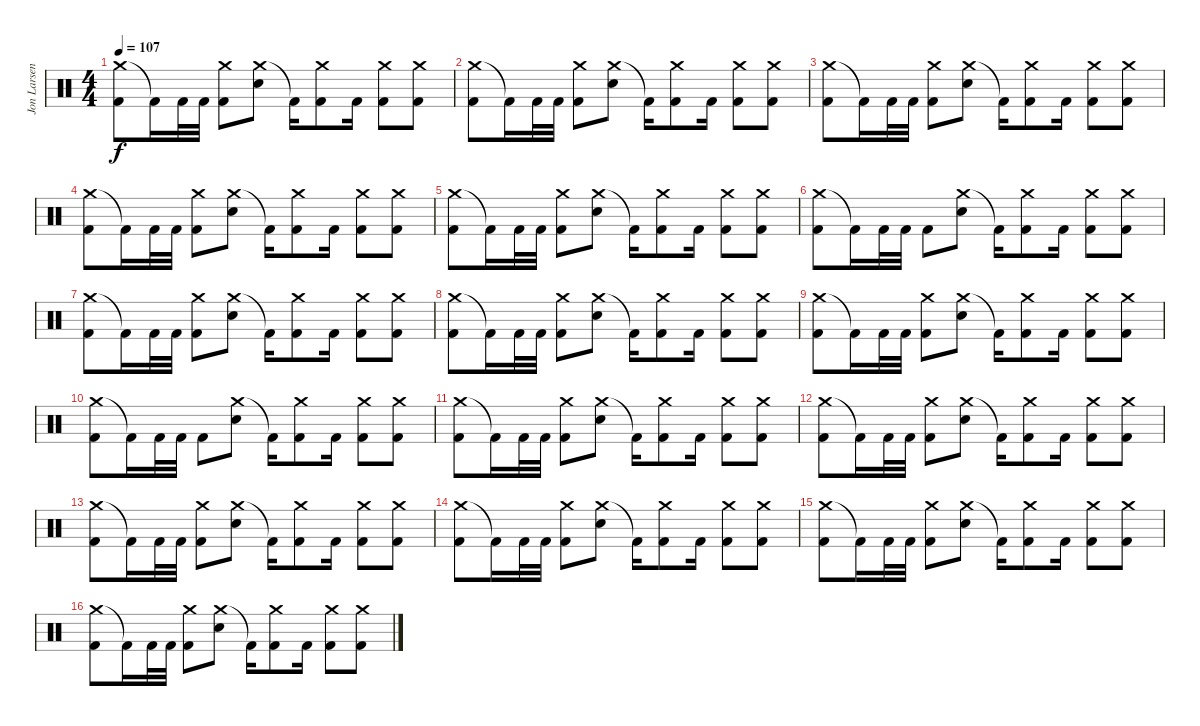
\track ("Jon Larsen (Drums)" "Jon Larsen") {instrument percussion}
\staff {score}
\articulation defaults
\ts (4 4)
\tempo 107
\clef neutral
\ks c
("Crash medium (hit)" "Kick (hit) 2").8{dy f} "Kick (hit) 2"{t}.16 "Kick (hit) 2".32 "Kick (hit) 2".32 ("Crash medium (hit)" "Kick (hit) 2").8 ("Crash medium (hit)" "Electric Snare (hit)").8 "Kick (hit) 2"{t}.16 ("Crash medium (hit)" "Kick (hit) 2").8 "Kick (hit) 2".16 ("Crash medium (hit)" "Kick (hit) 2").8 ("Crash medium (hit)" "Kick (hit) 2").8 |
("Crash medium (hit)" "Kick (hit) 2").8 "Kick (hit) 2"{t}.16 "Kick (hit) 2".32 "Kick (hit) 2".32 ("Crash medium (hit)" "Kick (hit) 2").8 ("Crash medium (hit)" "Electric Snare (hit)").8 "Kick (hit) 2"{t}.16 ("Crash medium (hit)" "Kick (hit) 2").8 "Kick (hit) 2".16 ("Crash medium (hit)" "Kick (hit) 2").8 ("Crash medium (hit)" "Kick (hit) 2").8 |
("Crash medium (hit)" "Kick (hit) 2").8 "Kick (hit) 2"{t}.16 "Kick (hit) 2".32 "Kick (hit) 2".32 ("Crash medium (hit)" "Kick (hit) 2").8 ("Crash medium (hit)" "Electric Snare (hit)").8 "Kick (hit) 2"{t}.16 ("Crash medium (hit)" "Kick (hit) 2").8 "Kick (hit) 2".16 ("Crash medium (hit)" "Kick (hit) 2").8 ("Crash medium (hit)" "Kick (hit) 2").8 |
("Crash medium (hit)" "Kick (hit) 2").8 "Kick (hit) 2"{t}.16 "Kick (hit) 2".32 "Kick (hit) 2".32 ("Crash medium (hit)" "Kick (hit) 2").8 ("Crash medium (hit)" "Electric Snare (hit)").8 "Kick (hit) 2"{t}.16 ("Crash medium (hit)" "Kick (hit) 2").8 "Kick (hit) 2".16 ("Crash medium (hit)" "Kick (hit) 2").8 ("Crash medium (hit)" "Kick (hit) 2").8 |
("Crash medium (hit)" "Kick (hit) 2").8 "Kick (hit) 2"{t}.16 "Kick (hit) 2".32 "Kick (hit) 2".32 ("Crash medium (hit)" "Kick (hit) 2").8 ("Crash medium (hit)" "Electric Snare (hit)").8 "Kick (hit) 2"{t}.16 ("Crash medium (hit)" "Kick (hit) 2").8 "Kick (hit) 2".16 ("Crash medium (hit)" "Kick (hit) 2").8 ("Crash medium (hit)" "Kick (hit) 2").8 |
("Crash medium (hit)" "Kick (hit) 2").8 "Kick (hit) 2"{t}.16 "Kick (hit) 2".32 "Kick (hit) 2".32 "Kick (hit) 2".8 ("Crash medium (hit)" "Electric Snare (hit)").8 "Kick (hit) 2"{t}.16 ("Crash medium (hit)" "Kick (hit) 2").8 "Kick (hit) 2".16 ("Crash medium (hit)" "Kick (hit) 2").8 ("Crash medium (hit)" "Kick (hit) 2").8 |
("Crash medium (hit)" "Kick (hit) 2").8 "Kick (hit) 2"{t}.16 "Kick (hit) 2".32 "Kick (hit) 2".32 ("Crash medium (hit)" "Kick (hit) 2").8 ("Crash medium (hit)" "Electric Snare (hit)").8 "Kick (hit) 2"{t}.16 ("Crash medium (hit)" "Kick (hit) 2").8 "Kick (hit) 2".16 ("Crash medium (hit)" "Kick (hit) 2").8 ("Crash medium (hit)" "Kick (hit) 2").8 |
("Crash medium (hit)" "Kick (hit) 2").8 "Kick (hit) 2"{t}.16 "Kick (hit) 2".32 "Kick (hit) 2".32 ("Crash medium (hit)" "Kick (hit) 2").8 ("Crash medium (hit)" "Electric Snare (hit)").8 "Kick (hit) 2"{t}.16 ("Crash medium (hit)" "Kick (hit) 2").8 "Kick (hit) 2".16 ("Crash medium (hit)" "Kick (hit) 2").8 ("Crash medium (hit)" "Kick (hit) 2").8 |
("Crash medium (hit)" "Kick (hit) 2").8 "Kick (hit) 2"{t}.16 "Kick (hit) 2".32 "Kick (hit) 2".32 ("Crash medium (hit)" "Kick (hit) 2").8 ("Crash medium (hit)" "Electric Snare (hit)").8 "Kick (hit) 2"{t}.16 ("Crash medium (hit)" "Kick (hit) 2").8 "Kick (hit) 2".16 ("Crash medium (hit)" "Kick (hit) 2").8 ("Crash medium (hit)" "Kick (hit) 2").8 |
("Crash medium (hit)" "Kick (hit) 2").8 "Kick (hit) 2"{t}.16 "Kick (hit) 2".32 "Kick (hit) 2".32 "Kick (hit) 2".8 ("Crash medium (hit)" "Electric Snare (hit)").8 "Kick (hit) 2"{t}.16 ("Crash medium (hit)" "Kick (hit) 2").8 "Kick (hit) 2".16 ("Crash medium (hit)" "Kick (hit) 2").8 ("Crash medium (hit)" "Kick (hit) 2").8 |
("Crash medium (hit)" "Kick (hit) 2").8 "Kick (hit) 2"{t}.16 "Kick (hit) 2".32 "Kick (hit) 2".32 ("Crash medium (hit)" "Kick (hit) 2").8 ("Crash medium (hit)" "Electric Snare (hit)").8 "Kick (hit) 2"{t}.16 ("Crash medium (hit)" "Kick (hit) 2").8 "Kick (hit) 2".16 ("Crash medium (hit)" "Kick (hit) 2").8 ("Crash medium (hit)" "Kick (hit) 2").8 |
("Crash medium (hit)" "Kick (hit) 2").8 "Kick (hit) 2"{t}.16 "Kick (hit) 2".32 "Kick (hit) 2".32 ("Crash medium (hit)" "Kick (hit) 2").8 ("Crash medium (hit)" "Electric Snare (hit)").8 "Kick (hit) 2"{t}.16 ("Crash medium (hit)" "Kick (hit) 2").8 "Kick (hit) 2".16 ("Crash medium (hit)" "Kick (hit) 2").8 ("Crash medium (hit)" "Kick (hit) 2").8 |
("Crash medium (hit)" "Kick (hit) 2").8 "Kick (hit) 2"{t}.16 "Kick (hit) 2".32 "Kick (hit) 2".32 ("Crash medium (hit)" "Kick (hit) 2").8 ("Crash medium (hit)" "Electric Snare (hit)").8 "Kick (hit) 2"{t}.16 ("Crash medium (hit)" "Kick (hit) 2").8 "Kick (hit) 2".16 ("Crash medium (hit)" "Kick (hit) 2").8 ("Crash medium (hit)" "Kick (hit) 2").8 |
("Crash medium (hit)" "Kick (hit) 2").8 "Kick (hit) 2"{t}.16 "Kick (hit) 2".32 "Kick (hit) 2".32 ("Crash medium (hit)" "Kick (hit) 2").8 ("Crash medium (hit)" "Electric Snare (hit)").8 "Kick (hit) 2"{t}.16 ("Crash medium (hit)" "Kick (hit) 2").8 "Kick (hit) 2".16 ("Crash medium (hit)" "Kick (hit) 2").8 ("Crash medium (hit)" "Kick (hit) 2").8 |
("Crash medium (hit)" "Kick (hit) 2").8 "Kick (hit) 2"{t}.16 "Kick (hit) 2".32 "Kick (hit) 2".32 ("Crash medium (hit)" "Kick (hit) 2").8 ("Crash medium (hit)" "Electric Snare (hit)").8 "Kick (hit) 2"{t}.16 ("Crash medium (hit)" "Kick (hit) 2").8 "Kick (hit) 2".16 ("Crash medium (hit)" "Kick (hit) 2").8 ("Crash medium (hit)" "Kick (hit) 2").8 |
("Crash medium (hit)" "Kick (hit) 2").8 "Kick (hit) 2"{t}.16 "Kick (hit) 2".32 "Kick (hit) 2".32 ("Crash medium (hit)" "Kick (hit) 2").8 ("Crash medium (hit)" "Electric Snare (hit)").8 "Kick (hit) 2"{t}.16 ("Crash medium (hit)" "Kick (hit) 2").8 "Kick (hit) 2".16 ("Crash medium (hit)" "Kick (hit) 2").8 ("Crash medium (hit)" "Kick (hit) 2").8
